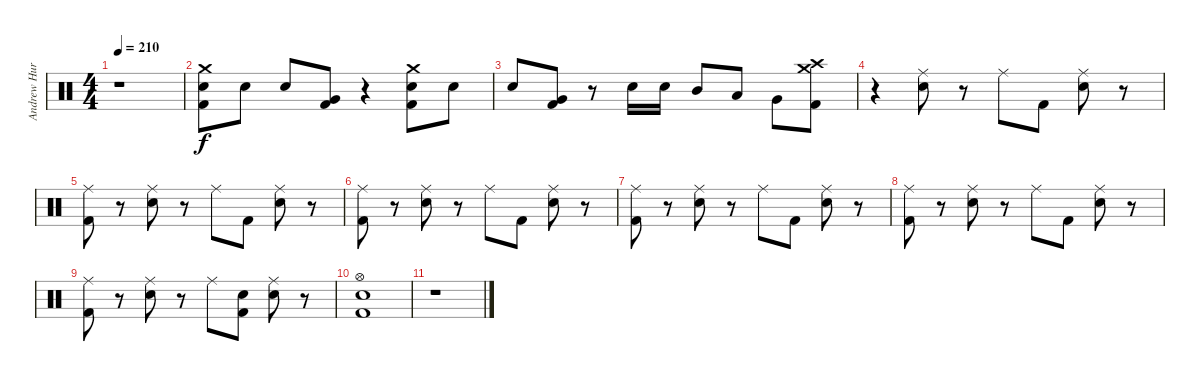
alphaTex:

\track ("Andrew Hurley (Drums)" "Andrew Hur") {instrument percussion}
\staff {score}
\articulation defaults
\ts (4 4)
\tempo 210
\clef neutral
\ks c
r.1{dy f} |
("Crash medium (hit)" "Electric Snare (hit)" "Kick (hit) 2").8 "Electric Snare (hit)".8 "Electric Snare (hit)".8 ("Very Low Tom (hit)" "Kick (hit) 2").8 r.4 ("Crash medium (hit)" "Electric Snare (hit)" "Kick (hit) 2").8 "Electric Snare (hit)".8 |
"Electric Snare (hit)".8 ("Very Low Tom (hit)" "Kick (hit) 2").8 r.8 "Electric Snare (hit)".16 "Electric Snare (hit)".16 "Mid Tom (hit)".8 "Low Tom (hit)".8 "Very Low Tom (hit)".8 ("Crash medium (hit)" "Crash high (hit)" "Kick (hit) 2").8 |
r.4 ("Ride (middle)" "Electric Snare (hit)").8 r.8 "Ride (middle)".8 "Kick (hit) 2".8 ("Ride (middle)" "Electric Snare (hit)").8 r.8 |
("Ride (middle)" "Kick (hit) 2").8 r.8 ("Ride (middle)" "Electric Snare (hit)").8 r.8 "Ride (middle)".8 "Kick (hit) 2".8 ("Ride (middle)" "Electric Snare (hit)").8 r.8 |
("Ride (middle)" "Kick (hit) 2").8 r.8 ("Ride (middle)" "Electric Snare (hit)").8 r.8 "Ride (middle)".8 "Kick (hit) 2".8 ("Ride (middle)" "Electric Snare (hit)").8 r.8 |
("Ride (middle)" "Kick (hit) 2").8 r.8 ("Ride (middle)" "Electric Snare (hit)").8 r.8 "Ride (middle)".8 "Kick (hit) 2".8 ("Ride (middle)" "Electric Snare (hit)").8 r.8 |
("Ride (middle)" "Kick (hit) 2").8 r.8 ("Ride (middle)" "Electric Snare (hit)").8 r.8 "Ride (middle)".8 "Kick (hit) 2".8 ("Ride (middle)" "Electric Snare (hit)").8 r.8 |
("Ride (middle)" "Kick (hit) 2").8 r.8 ("Ride (middle)" "Electric Snare (hit)").8 r.8 "Ride (middle)".8 ("Electric Snare (hit)" "Kick (hit) 2").8 ("Ride (middle)" "Electric Snare (hit)").8 r.8 |
("Hi-Hat (open)" "Electric Snare (hit)" "Kick (hit) 2").1 |
r.1
